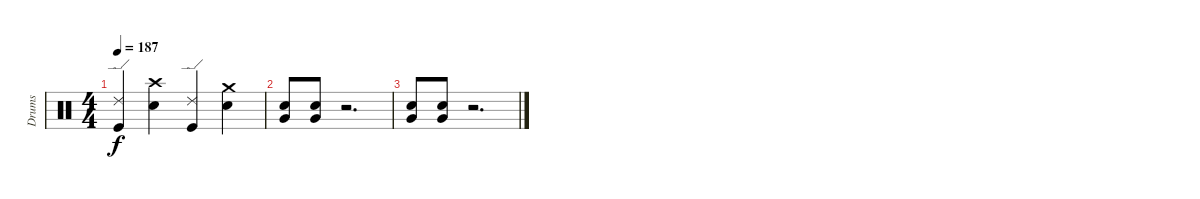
\track ("Drums" "Drums") {instrument percussion}
\staff {score}
\articulation defaults
\ts (4 4)
\tempo 187
\clef neutral
\ks c
("Ride (edge) 2" "Kick (hit)").4{dy f} ("Crash high (hit)" "Snare (hit) 2").4 ("Ride (edge) 2" "Kick (hit)").4 ("Crash medium (hit)" "Snare (hit) 2").4 |
("Very Low Tom (hit)" "Snare (hit) 2").8 ("Very Low Tom (hit)" "Snare (hit) 2").8 r.2{d} |
("Very Low Tom (hit)" "Snare (hit) 2").8 ("Very Low Tom (hit)" "Snare (hit) 2").8 r.2{d}
